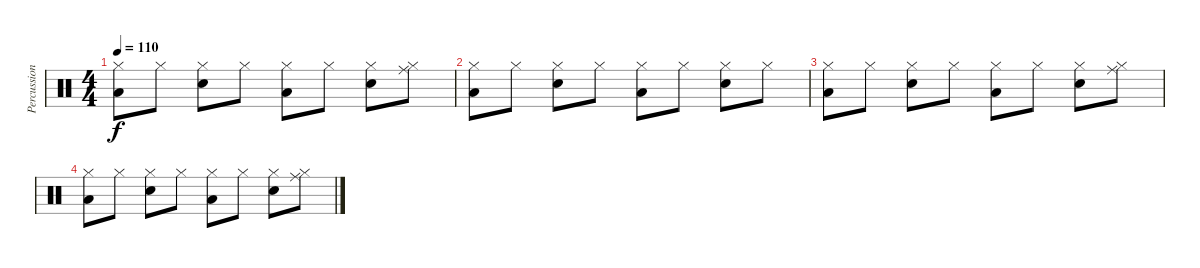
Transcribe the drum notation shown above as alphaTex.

\track ("Percussion" "Percussion") {instrument percussion}
\staff {score}
\articulation defaults
\ts (4 4)
\tempo 110
\clef neutral
\ks c
("Hi-Hat (closed)" "Low Floor Tom (hit)").8{dy f} "Hi-Hat (closed)".8 ("Hi-Hat (closed)" "Snare (hit) 2").8 "Hi-Hat (closed)".8 ("Hi-Hat (closed)" "Low Floor Tom (hit)").8 "Hi-Hat (closed)".8 ("Hi-Hat (closed)" "Snare (hit) 2").8 ("Hi-Hat (closed)" "Ride (middle)").8 |
("Hi-Hat (closed)" "Low Floor Tom (hit)").8 "Hi-Hat (closed)".8 ("Hi-Hat (closed)" "Snare (hit) 2").8 "Hi-Hat (closed)".8 ("Hi-Hat (closed)" "Low Floor Tom (hit)").8 "Hi-Hat (closed)".8 ("Hi-Hat (closed)" "Snare (hit) 2").8 "Hi-Hat (closed)".8 |
("Hi-Hat (closed)" "Low Floor Tom (hit)").8 "Hi-Hat (closed)".8 ("Hi-Hat (closed)" "Snare (hit) 2").8 "Hi-Hat (closed)".8 ("Hi-Hat (closed)" "Low Floor Tom (hit)").8 "Hi-Hat (closed)".8 ("Hi-Hat (closed)" "Snare (hit) 2").8 ("Hi-Hat (closed)" "Ride (middle)").8 |
("Hi-Hat (closed)" "Low Floor Tom (hit)").8 "Hi-Hat (closed)".8 ("Hi-Hat (closed)" "Snare (hit) 2").8 "Hi-Hat (closed)".8 ("Hi-Hat (closed)" "Low Floor Tom (hit)").8 "Hi-Hat (closed)".8 ("Hi-Hat (closed)" "Snare (hit) 2").8 ("Hi-Hat (closed)" "Ride (middle)").8
